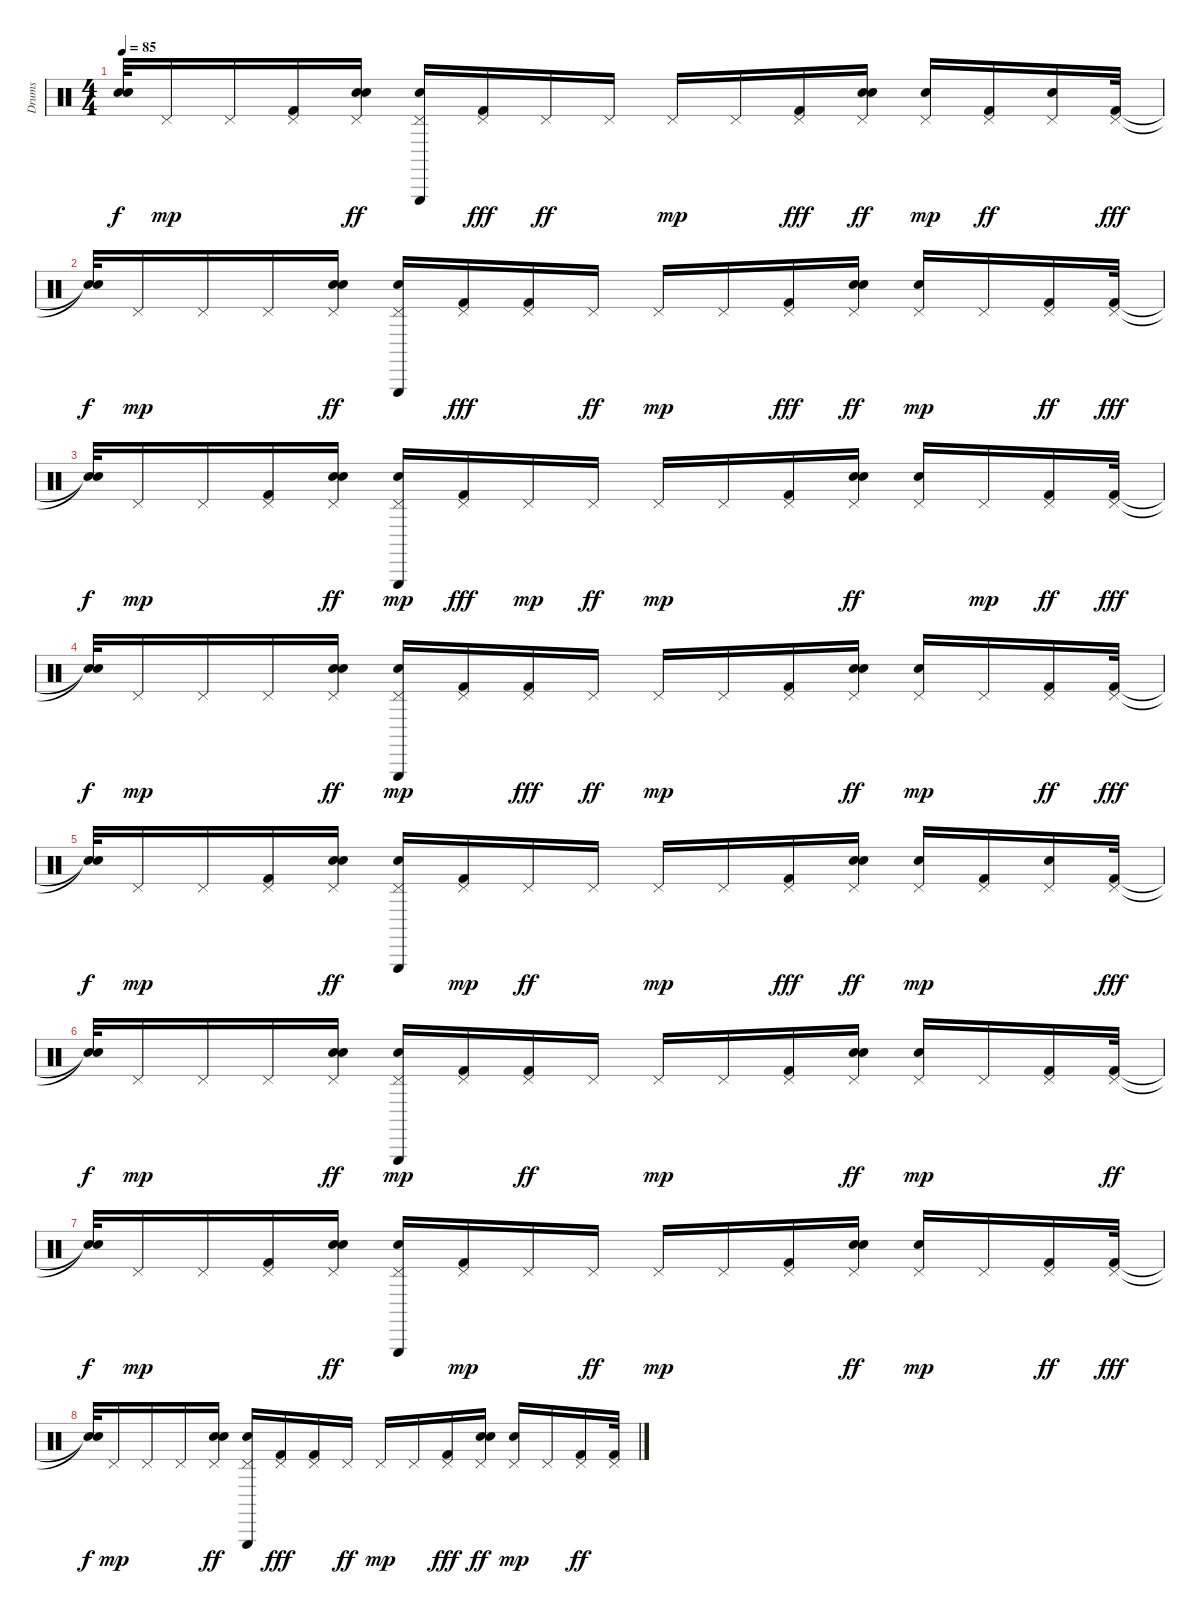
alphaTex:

\track ("Drums" "Drums") {instrument percussion}
\staff {score}
\articulation defaults
\ts (4 4)
\tempo 85
\clef neutral
\ks c
("Snare (hit)"{t} "Snare (hit)"{t}).32{dy f} "Pedal Hi-Hat (hit)".16{dy mp} "Pedal Hi-Hat (hit)".16 ("Kick (hit) 2" "Pedal Hi-Hat (hit)").16 ("Pedal Hi-Hat (hit)" "Snare (hit) 2" "Hand Clap (hit)").16{dy ff} ("Triangle (hit)" "Pedal Hi-Hat (hit)" "Snare (hit) 2").16 ("Pedal Hi-Hat (hit)" "Kick (hit) 2").16{dy fff} "Pedal Hi-Hat (hit)".16{dy ff} "Pedal Hi-Hat (hit)".16 "Pedal Hi-Hat (hit)".16{dy mp} "Pedal Hi-Hat (hit)".16 ("Pedal Hi-Hat (hit)" "Kick (hit) 2").16{dy fff} ("Hand Clap (hit)" "Snare (hit) 2" "Pedal Hi-Hat (hit)").16{dy ff} ("Snare (hit) 2" "Pedal Hi-Hat (hit)").16{dy mp} ("Pedal Hi-Hat (hit)" "Kick (hit) 2").16{dy ff} ("Pedal Hi-Hat (hit)" "Snare (hit) 2").16 ("Pedal Hi-Hat (hit)" "Kick (hit) 2").32{dy fff} |
("Snare (hit)"{t} "Snare (hit)"{t}).32{dy f} "Pedal Hi-Hat (hit)".16{dy mp} "Pedal Hi-Hat (hit)".16 "Pedal Hi-Hat (hit)".16 ("Pedal Hi-Hat (hit)" "Hand Clap (hit)" "Snare (hit) 2").16{dy ff} ("Pedal Hi-Hat (hit)" "Triangle (hit)" "Snare (hit) 2").16 ("Pedal Hi-Hat (hit)" "Kick (hit) 2").16{dy fff} ("Pedal Hi-Hat (hit)" "Kick (hit) 2").16 "Pedal Hi-Hat (hit)".16{dy ff} "Pedal Hi-Hat (hit)".16{dy mp} "Pedal Hi-Hat (hit)".16 ("Pedal Hi-Hat (hit)" "Kick (hit) 2").16{dy fff} ("Snare (hit) 2" "Pedal Hi-Hat (hit)" "Hand Clap (hit)").16{dy ff} ("Snare (hit) 2" "Pedal Hi-Hat (hit)").16{dy mp} "Pedal Hi-Hat (hit)".16 ("Pedal Hi-Hat (hit)" "Kick (hit) 2").16{dy ff} ("Pedal Hi-Hat (hit)" "Kick (hit) 2").32{dy fff} |
("Snare (hit)"{t} "Snare (hit)"{t}).32{dy f} "Pedal Hi-Hat (hit)".16{dy mp} "Pedal Hi-Hat (hit)".16 ("Kick (hit) 2" "Pedal Hi-Hat (hit)").16 ("Hand Clap (hit)" "Pedal Hi-Hat (hit)" "Snare (hit) 2").16{dy ff} ("Triangle (hit)" "Snare (hit) 2" "Pedal Hi-Hat (hit)").16{dy mp} ("Pedal Hi-Hat (hit)" "Kick (hit) 2").16{dy fff} "Pedal Hi-Hat (hit)".16{dy mp} "Pedal Hi-Hat (hit)".16{dy ff} "Pedal Hi-Hat (hit)".16{dy mp} "Pedal Hi-Hat (hit)".16 ("Kick (hit) 2" "Pedal Hi-Hat (hit)").16 ("Hand Clap (hit)" "Pedal Hi-Hat (hit)" "Snare (hit) 2").16{dy ff} ("Pedal Hi-Hat (hit)" "Snare (hit) 2").16 "Pedal Hi-Hat (hit)".16{dy mp} ("Pedal Hi-Hat (hit)" "Kick (hit) 2").16{dy ff} ("Pedal Hi-Hat (hit)" "Kick (hit) 2").32{dy fff} |
("Snare (hit)"{t} "Snare (hit)"{t}).32{dy f} "Pedal Hi-Hat (hit)".16{dy mp} "Pedal Hi-Hat (hit)".16 "Pedal Hi-Hat (hit)".16 ("Snare (hit) 2" "Pedal Hi-Hat (hit)" "Hand Clap (hit)").16{dy ff} ("Snare (hit) 2" "Pedal Hi-Hat (hit)" "Triangle (hit)").16{dy mp} ("Kick (hit) 2" "Pedal Hi-Hat (hit)").16 ("Pedal Hi-Hat (hit)" "Kick (hit) 2").16{dy fff} "Pedal Hi-Hat (hit)".16{dy ff} "Pedal Hi-Hat (hit)".16{dy mp} "Pedal Hi-Hat (hit)".16 ("Kick (hit) 2" "Pedal Hi-Hat (hit)").16 ("Pedal Hi-Hat (hit)" "Snare (hit) 2" "Hand Clap (hit)").16{dy ff} ("Snare (hit) 2" "Pedal Hi-Hat (hit)").16{dy mp} "Pedal Hi-Hat (hit)".16 ("Pedal Hi-Hat (hit)" "Kick (hit) 2").16{dy ff} ("Pedal Hi-Hat (hit)" "Kick (hit) 2").32{dy fff} |
("Snare (hit)"{t} "Snare (hit)"{t}).32{dy f} "Pedal Hi-Hat (hit)".16{dy mp} "Pedal Hi-Hat (hit)".16 ("Kick (hit) 2" "Pedal Hi-Hat (hit)").16 ("Snare (hit) 2" "Pedal Hi-Hat (hit)" "Hand Clap (hit)").16{dy ff} ("Triangle (hit)" "Pedal Hi-Hat (hit)" "Snare (hit) 2").16 ("Kick (hit) 2" "Pedal Hi-Hat (hit)").16{dy mp} "Pedal Hi-Hat (hit)".16{dy ff} "Pedal Hi-Hat (hit)".16 "Pedal Hi-Hat (hit)".16{dy mp} "Pedal Hi-Hat (hit)".16 ("Pedal Hi-Hat (hit)" "Kick (hit) 2").16{dy fff} ("Hand Clap (hit)" "Snare (hit) 2" "Pedal Hi-Hat (hit)").16{dy ff} ("Snare (hit) 2" "Pedal Hi-Hat (hit)").16{dy mp} ("Kick (hit) 2" "Pedal Hi-Hat (hit)").16 ("Snare (hit) 2" "Pedal Hi-Hat (hit)").16 ("Pedal Hi-Hat (hit)" "Kick (hit) 2").32{dy fff} |
("Snare (hit)"{t} "Snare (hit)"{t}).32{dy f} "Pedal Hi-Hat (hit)".16{dy mp} "Pedal Hi-Hat (hit)".16 "Pedal Hi-Hat (hit)".16 ("Snare (hit) 2" "Hand Clap (hit)" "Pedal Hi-Hat (hit)").16{dy ff} ("Snare (hit) 2" "Triangle (hit)" "Pedal Hi-Hat (hit)").16{dy mp} ("Kick (hit) 2" "Pedal Hi-Hat (hit)").16 ("Kick (hit) 2" "Pedal Hi-Hat (hit)").16{dy ff} "Pedal Hi-Hat (hit)".16 "Pedal Hi-Hat (hit)".16{dy mp} "Pedal Hi-Hat (hit)".16 ("Kick (hit) 2" "Pedal Hi-Hat (hit)").16 ("Hand Clap (hit)" "Snare (hit) 2" "Pedal Hi-Hat (hit)").16{dy ff} ("Snare (hit) 2" "Pedal Hi-Hat (hit)").16{dy mp} "Pedal Hi-Hat (hit)".16 ("Kick (hit) 2" "Pedal Hi-Hat (hit)").16 ("Kick (hit) 2" "Pedal Hi-Hat (hit)").32{dy ff} |
("Snare (hit)"{t} "Snare (hit)"{t}).32{dy f} "Pedal Hi-Hat (hit)".16{dy mp} "Pedal Hi-Hat (hit)".16 ("Kick (hit) 2" "Pedal Hi-Hat (hit)").16 ("Pedal Hi-Hat (hit)" "Hand Clap (hit)" "Snare (hit) 2").16{dy ff} ("Pedal Hi-Hat (hit)" "Triangle (hit)" "Snare (hit) 2").16 ("Kick (hit) 2" "Pedal Hi-Hat (hit)").16{dy mp} "Pedal Hi-Hat (hit)".16 "Pedal Hi-Hat (hit)".16{dy ff} "Pedal Hi-Hat (hit)".16{dy mp} "Pedal Hi-Hat (hit)".16 ("Kick (hit) 2" "Pedal Hi-Hat (hit)").16 ("Hand Clap (hit)" "Snare (hit) 2" "Pedal Hi-Hat (hit)").16{dy ff} ("Snare (hit) 2" "Pedal Hi-Hat (hit)").16{dy mp} "Pedal Hi-Hat (hit)".16 ("Pedal Hi-Hat (hit)" "Kick (hit) 2").16{dy ff} ("Pedal Hi-Hat (hit)" "Kick (hit) 2").32{dy fff} |
("Snare (hit)"{t} "Snare (hit)"{t}).32{dy f} "Pedal Hi-Hat (hit)".16{dy mp} "Pedal Hi-Hat (hit)".16 "Pedal Hi-Hat (hit)".16 ("Pedal Hi-Hat (hit)" "Hand Clap (hit)" "Snare (hit) 2").16{dy ff} ("Triangle (hit)" "Pedal Hi-Hat (hit)" "Snare (hit) 2").16 ("Pedal Hi-Hat (hit)" "Kick (hit) 2").16{dy fff} ("Pedal Hi-Hat (hit)" "Kick (hit) 2").16 "Pedal Hi-Hat (hit)".16{dy ff} "Pedal Hi-Hat (hit)".16{dy mp} "Pedal Hi-Hat (hit)".16 ("Pedal Hi-Hat (hit)" "Kick (hit) 2").16{dy fff} ("Snare (hit) 2" "Pedal Hi-Hat (hit)" "Hand Clap (hit)").16{dy ff} ("Snare (hit) 2" "Pedal Hi-Hat (hit)").16{dy mp} "Pedal Hi-Hat (hit)".16 ("Pedal Hi-Hat (hit)" "Kick (hit) 2").16{dy ff} ("Kick (hit) 2" "Pedal Hi-Hat (hit)").32
